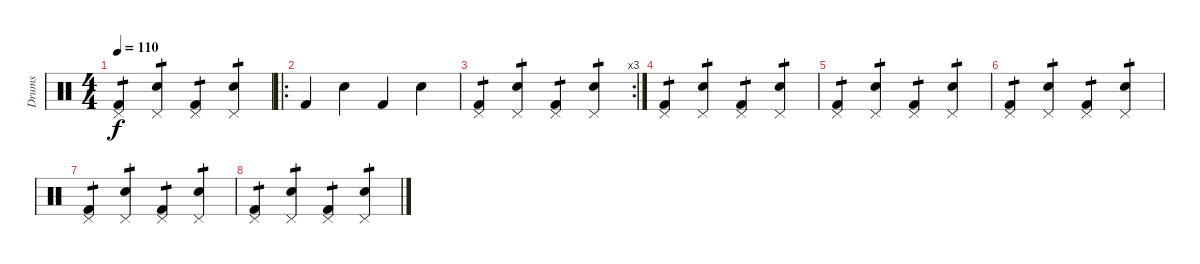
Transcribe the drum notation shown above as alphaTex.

\track ("Drums" "Drums") {instrument percussion}
\staff {score}
\articulation defaults
\ts (4 4)
\tempo 110
\clef neutral
\ks c
("Kick (hit) 2" "Pedal Hi-Hat (hit)").4{tp 1 dy f} ("Snare (hit) 2" "Pedal Hi-Hat (hit)").4{tp 1} ("Kick (hit) 2" "Pedal Hi-Hat (hit)").4{tp 1} ("Snare (hit) 2" "Pedal Hi-Hat (hit)").4{tp 1} |
\ro "Kick (hit) 2".4 "Snare (hit) 2".4 "Kick (hit) 2".4 "Snare (hit) 2".4
|
\rc 3
("Kick (hit) 2" "Pedal Hi-Hat (hit)").4{tp 1} ("Snare (hit) 2" "Pedal Hi-Hat (hit)").4{tp 1} ("Kick (hit) 2" "Pedal Hi-Hat (hit)").4{tp 1} ("Snare (hit) 2" "Pedal Hi-Hat (hit)").4{tp 1} |
("Kick (hit) 2" "Pedal Hi-Hat (hit)").4{tp 1} ("Snare (hit) 2" "Pedal Hi-Hat (hit)").4{tp 1} ("Kick (hit) 2" "Pedal Hi-Hat (hit)").4{tp 1} ("Snare (hit) 2" "Pedal Hi-Hat (hit)").4{tp 1} |
("Kick (hit) 2" "Pedal Hi-Hat (hit)").4{tp 1} ("Snare (hit) 2" "Pedal Hi-Hat (hit)").4{tp 1} ("Kick (hit) 2" "Pedal Hi-Hat (hit)").4{tp 1} ("Snare (hit) 2" "Pedal Hi-Hat (hit)").4{tp 1} |
("Kick (hit) 2" "Pedal Hi-Hat (hit)").4{tp 1} ("Snare (hit) 2" "Pedal Hi-Hat (hit)").4{tp 1} ("Kick (hit) 2" "Pedal Hi-Hat (hit)").4{tp 1} ("Snare (hit) 2" "Pedal Hi-Hat (hit)").4{tp 1} |
("Kick (hit) 2" "Pedal Hi-Hat (hit)").4{tp 1} ("Snare (hit) 2" "Pedal Hi-Hat (hit)").4{tp 1} ("Kick (hit) 2" "Pedal Hi-Hat (hit)").4{tp 1} ("Snare (hit) 2" "Pedal Hi-Hat (hit)").4{tp 1} |
("Kick (hit) 2" "Pedal Hi-Hat (hit)").4{tp 1} ("Snare (hit) 2" "Pedal Hi-Hat (hit)").4{tp 1} ("Kick (hit) 2" "Pedal Hi-Hat (hit)").4{tp 1} ("Snare (hit) 2" "Pedal Hi-Hat (hit)").4{tp 1}
